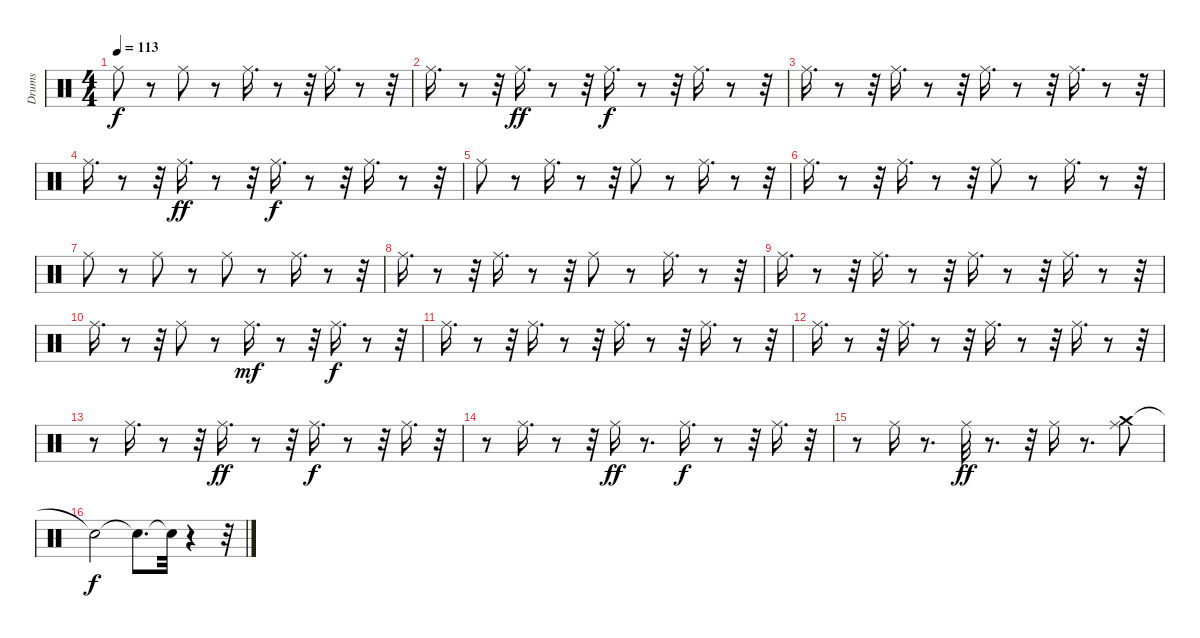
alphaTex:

\track ("Drums" "Drums") {instrument percussion}
\staff {score}
\articulation defaults
\ts (4 4)
\tempo 113
\clef neutral
\ks c "Ride (middle)".8{dy f}
r.8 "Ride (middle)".8 r.8 "Ride (middle)".16{d} r.8 r.32 "Ride (middle)".16{d} r.8 r.32 |
"Ride (middle)".16{d} r.8 r.32 "Ride (middle)".16{d dy ff} r.8 r.32 "Ride (middle)".16{d dy f} r.8 r.32 "Ride (middle)".16{d} r.8 r.32 |
"Ride (middle)".16{d} r.8 r.32 "Ride (middle)".16{d} r.8 r.32 "Ride (middle)".16{d} r.8 r.32 "Ride (middle)".16{d} r.8 r.32 |
"Ride (middle)".16{d} r.8 r.32 "Ride (middle)".16{d dy ff} r.8 r.32 "Ride (middle)".16{d dy f} r.8 r.32 "Ride (middle)".16{d} r.8 r.32 |
"Ride (middle)".8 r.8 "Ride (middle)".16{d} r.8 r.32 "Ride (middle)".8 r.8 "Ride (middle)".16{d} r.8 r.32 |
"Ride (middle)".16{d} r.8 r.32 "Ride (middle)".16{d} r.8 r.32 "Ride (middle)".8 r.8 "Ride (middle)".16{d} r.8 r.32 |
"Ride (middle)".8 r.8 "Ride (middle)".8 r.8 "Ride (middle)".8 r.8 "Ride (middle)".16{d} r.8 r.32 |
"Ride (middle)".16{d} r.8 r.32 "Ride (middle)".16{d} r.8 r.32 "Ride (middle)".8 r.8 "Ride (middle)".16{d} r.8 r.32 |
"Ride (middle)".16{d} r.8 r.32 "Ride (middle)".16{d} r.8 r.32 "Ride (middle)".16{d} r.8 r.32 "Ride (middle)".16{d} r.8 r.32 |
"Ride (middle)".16{d} r.8 r.32 "Ride (middle)".8 r.8 "Ride (middle)".16{d dy mf} r.8 r.32 "Ride (middle)".16{d dy f} r.8 r.32 |
"Ride (middle)".16{d} r.8 r.32 "Ride (middle)".16{d} r.8 r.32 "Ride (middle)".16{d} r.8 r.32 "Ride (middle)".16{d} r.8 r.32 |
"Ride (middle)".16{d} r.8 r.32 "Ride (middle)".16{d} r.8 r.32 "Ride (middle)".16{d} r.8 r.32 "Ride (middle)".16{d} r.8 r.32 |
r.8 "Ride (middle)".16{d} r.8 r.32 "Ride (middle)".16{d dy ff} r.8 r.32 "Ride (middle)".16{d dy f} r.8 r.32 "Ride (middle)".16{d} r.32 |
r.8 "Ride (middle)".16{d} r.8 r.32 "Ride (middle)".16{dy ff} r.8{d} "Ride (middle)".16{d dy f} r.8 r.32 "Ride (middle)".16{d} r.32 |
r.8 "Ride (middle)".16 r.8{d} "Ride (middle)".32{dy ff} r.8{d} r.32 "Ride (middle)".16 r.8{d} ("Crash medium (hit)" "Ride (middle)").8 |
"Snare (hit)"{t}.2{dy f} "Snare (hit)"{t}.8{d} "Snare (hit)"{t}.32 r.4 r.32
